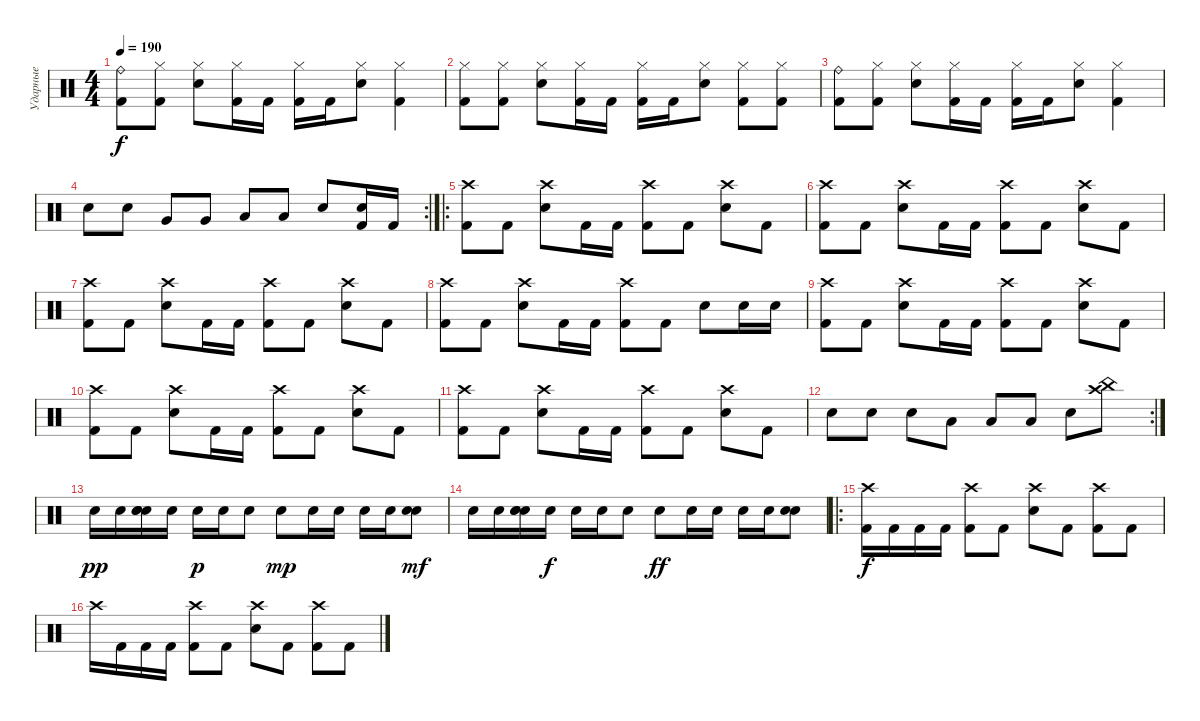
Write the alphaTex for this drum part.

\track ("Ударные" "Ударные") {instrument percussion}
\staff {score}
\articulation defaults
\ts (4 4)
\tempo 190
\clef neutral
\ks c
("Ride (bell)" "Kick (hit) 2").8{dy f} ("Hi-Hat (closed)" "Kick (hit) 2").8 ("Electric Snare (hit)" "Hi-Hat (closed)").8 ("Hi-Hat (closed)" "Kick (hit) 2").16 "Kick (hit) 2".16 ("Kick (hit) 2" "Hi-Hat (closed)").16 "Kick (hit) 2".16 ("Hi-Hat (closed)" "Snare (hit) 2").8 ("Hi-Hat (closed)" "Kick (hit) 2").4 |
("Hi-Hat (closed)" "Kick (hit) 2").8 ("Hi-Hat (closed)" "Kick (hit) 2").8 ("Electric Snare (hit)" "Hi-Hat (closed)").8 ("Hi-Hat (closed)" "Kick (hit) 2").16 "Kick (hit) 2".16 ("Kick (hit) 2" "Hi-Hat (closed)").16 "Kick (hit) 2".16 ("Hi-Hat (closed)" "Snare (hit) 2").8 ("Hi-Hat (closed)" "Kick (hit) 2").8 ("Hi-Hat (closed)" "Kick (hit) 2").8 |
("Ride (bell)" "Kick (hit) 2").8 ("Hi-Hat (closed)" "Kick (hit) 2").8 ("Electric Snare (hit)" "Hi-Hat (closed)").8 ("Hi-Hat (closed)" "Kick (hit) 2").16 "Kick (hit) 2".16 ("Kick (hit) 2" "Hi-Hat (closed)").16 "Kick (hit) 2".16 ("Hi-Hat (closed)" "Snare (hit) 2").8 ("Hi-Hat (closed)" "Kick (hit) 2").4 |
\rc 2 "Snare (hit) 2".8 "Snare (hit) 2".8 "Very Low Tom (hit)".8 "Very Low Tom (hit)".8 "Low Floor Tom (hit)".8 "Low Floor Tom (hit)".8 "Snare (hit) 2".8
("Snare (hit) 2" "Kick (hit) 2").16 "Kick (hit) 2".16 |
\ro
("Crash high (hit)" "Kick (hit) 2").8 "Kick (hit) 2".8 ("Electric Snare (hit)" "Crash high (hit)").8 "Kick (hit) 2".16 "Kick (hit) 2".16 ("Kick (hit) 2" "Crash high (hit)").8 "Kick (hit) 2".8 ("Electric Snare (hit)" "Crash high (hit)").8 "Kick (hit) 2".8 |
("Crash high (hit)" "Kick (hit) 2").8 "Kick (hit) 2".8 ("Electric Snare (hit)" "Crash high (hit)").8 "Kick (hit) 2".16 "Kick (hit) 2".16 ("Kick (hit) 2" "Crash high (hit)").8 "Kick (hit) 2".8 ("Electric Snare (hit)" "Crash high (hit)").8 "Kick (hit) 2".8 |
("Crash high (hit)" "Kick (hit) 2").8 "Kick (hit) 2".8 ("Electric Snare (hit)" "Crash high (hit)").8 "Kick (hit) 2".16 "Kick (hit) 2".16 ("Kick (hit) 2" "Crash high (hit)").8 "Kick (hit) 2".8 ("Electric Snare (hit)" "Crash high (hit)").8 "Kick (hit) 2".8 |
("Crash high (hit)" "Kick (hit) 2").8 "Kick (hit) 2".8 ("Electric Snare (hit)" "Crash high (hit)").8 "Kick (hit) 2".16 "Kick (hit) 2".16 ("Kick (hit) 2" "Crash high (hit)").8 "Kick (hit) 2".8 "Electric Snare (hit)".8 "Electric Snare (hit)".16 "Electric Snare (hit)".16 |
("Crash high (hit)" "Kick (hit) 2").8 "Kick (hit) 2".8 ("Electric Snare (hit)" "Crash high (hit)").8 "Kick (hit) 2".16 "Kick (hit) 2".16 ("Kick (hit) 2" "Crash high (hit)").8 "Kick (hit) 2".8 ("Electric Snare (hit)" "Crash high (hit)").8 "Kick (hit) 2".8 |
("Crash high (hit)" "Kick (hit) 2").8 "Kick (hit) 2".8 ("Electric Snare (hit)" "Crash high (hit)").8 "Kick (hit) 2".16 "Kick (hit) 2".16 ("Kick (hit) 2" "Crash high (hit)").8 "Kick (hit) 2".8 ("Electric Snare (hit)" "Crash high (hit)").8 "Kick (hit) 2".8 |
("Crash high (hit)" "Kick (hit) 2").8 "Kick (hit) 2".8 ("Electric Snare (hit)" "Crash high (hit)").8 "Kick (hit) 2".16 "Kick (hit) 2".16 ("Kick (hit) 2" "Crash high (hit)").8 "Kick (hit) 2".8 ("Electric Snare (hit)" "Crash high (hit)").8 "Kick (hit) 2".8 |
\rc 2 "Electric Snare (hit)".8 "Electric Snare (hit)".8 "Electric Snare (hit)".8 "Low Floor Tom (hit)".8 "Low Floor Tom (hit)".8 "Low Floor Tom (hit)".8 "Electric Snare (hit)".8
("China (hit)" "Crash high (hit)").8 |
"Electric Snare (hit)".16{dy pp} "Electric Snare (hit)".16 ("Electric Snare (hit)" "Electric Snare (hit)" "Electric Snare (hit)").16 "Electric Snare (hit)".16 "Electric Snare (hit)".16{dy p} "Electric Snare (hit)".16 "Electric Snare (hit)".8 "Electric Snare (hit)".8{dy mp} "Electric Snare (hit)".16 "Electric Snare (hit)".16 "Electric Snare (hit)".16 "Electric Snare (hit)".16 ("Electric Snare (hit)" "Electric Snare (hit)").8{dy mf} |
"Electric Snare (hit)".16 "Electric Snare (hit)".16 ("Electric Snare (hit)" "Electric Snare (hit)" "Electric Snare (hit)").16 "Electric Snare (hit)".16{dy f} "Electric Snare (hit)".16 "Electric Snare (hit)".16 "Electric Snare (hit)".8 "Electric Snare (hit)".8{dy ff} "Electric Snare (hit)".16 "Electric Snare (hit)".16 "Electric Snare (hit)".16 "Electric Snare (hit)".16 ("Electric Snare (hit)" "Electric Snare (hit)").8 |
\ro
("Kick (hit) 2" "Crash high (hit)").16{dy f} "Kick (hit) 2".16 "Kick (hit) 2".16 "Kick (hit) 2".16 ("Kick (hit) 2" "Crash high (hit)").8 "Kick (hit) 2".8 ("Electric Snare (hit)" "Crash high (hit)").8 "Kick (hit) 2".8 ("Kick (hit) 2" "Crash high (hit)").8 "Kick (hit) 2".8 |
"Crash high (hit)".16 "Kick (hit) 2".16 "Kick (hit) 2".16 "Kick (hit) 2".16 ("Kick (hit) 2" "Crash high (hit)").8 "Kick (hit) 2".8 ("Electric Snare (hit)" "Crash high (hit)").8 "Kick (hit) 2".8 ("Kick (hit) 2" "Crash high (hit)").8 "Kick (hit) 2".8
